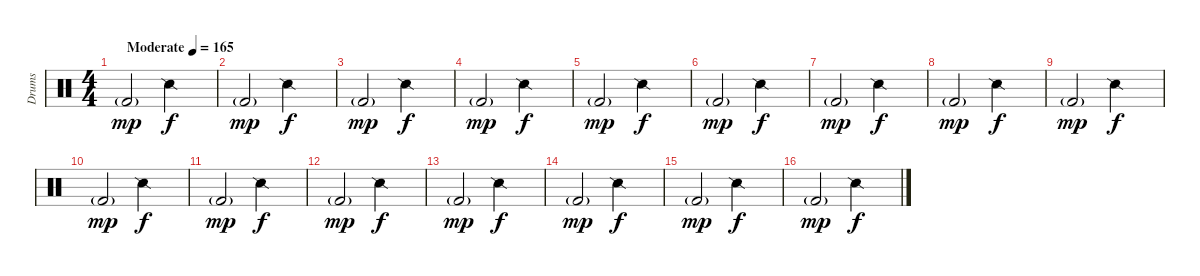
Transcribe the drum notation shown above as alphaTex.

\track ("Drums" "Drums") {instrument percussion}
\staff {score}
\articulation defaults
\ts (4 4)
\tempo (165 "Moderate")
\clef neutral
\ks c "Kick (hit) 2"{g}.2{dy mp} "Snare (side stick) 2".2{dy f}
|
"Kick (hit) 2"{g}.2{dy mp} "Snare (side stick) 2".2{dy f} |
"Kick (hit) 2"{g}.2{dy mp} "Snare (side stick) 2".2{dy f} |
"Kick (hit) 2"{g}.2{dy mp} "Snare (side stick) 2".2{dy f} |
"Kick (hit) 2"{g}.2{dy mp} "Snare (side stick) 2".2{dy f} |
"Kick (hit) 2"{g}.2{dy mp} "Snare (side stick) 2".2{dy f} |
"Kick (hit) 2"{g}.2{dy mp} "Snare (side stick) 2".2{dy f} |
"Kick (hit) 2"{g}.2{dy mp} "Snare (side stick) 2".2{dy f} |
"Kick (hit) 2"{g}.2{dy mp} "Snare (side stick) 2".2{dy f} |
"Kick (hit) 2"{g}.2{dy mp} "Snare (side stick) 2".2{dy f} |
"Kick (hit) 2"{g}.2{dy mp} "Snare (side stick) 2".2{dy f} |
"Kick (hit) 2"{g}.2{dy mp} "Snare (side stick) 2".2{dy f} |
"Kick (hit) 2"{g}.2{dy mp} "Snare (side stick) 2".2{dy f} |
"Kick (hit) 2"{g}.2{dy mp} "Snare (side stick) 2".2{dy f} |
"Kick (hit) 2"{g}.2{dy mp} "Snare (side stick) 2".2{dy f} |
"Kick (hit) 2"{g}.2{dy mp} "Snare (side stick) 2".2{dy f}
